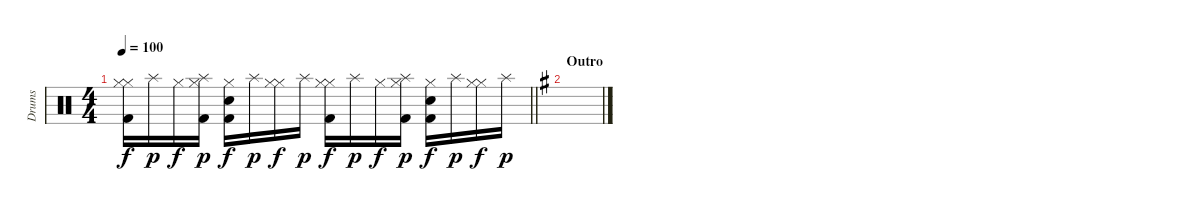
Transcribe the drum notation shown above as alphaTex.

\track ("Drums" "Drums") {instrument percussion}
\staff {score}
\articulation defaults
\ts (4 4)
\tempo 100
\clef neutral
\barLineRight lightlight
\ks c
("Hi-Hat (closed)" "Hi-Hat (closed)" "Kick (hit) 2").16{dy f} "Splash (hit)".16{dy p} "Hi-Hat (closed)".16{dy f} ("Splash (hit)" "Hi-Hat (closed)" "Kick (hit) 2").16{dy p} ("Electric Snare (hit)" "Hi-Hat (closed)" "Kick (hit) 2").16{dy f} "Splash (hit)".16{dy p} ("Hi-Hat (closed)" "Hi-Hat (closed)").16{dy f} "Splash (hit)".16{dy p} ("Hi-Hat (closed)" "Hi-Hat (closed)" "Kick (hit) 2").16{dy f} "Splash (hit)".16{dy p} "Hi-Hat (closed)".16{dy f} ("Splash (hit)" "Hi-Hat (closed)" "Kick (hit) 2").16{dy p} ("Electric Snare (hit)" "Hi-Hat (closed)" "Kick (hit) 2").16{dy f} "Splash (hit)".16{dy p} ("Hi-Hat (closed)" "Hi-Hat (closed)").16{dy f} "Splash (hit)".16{dy p} |
\section ("" "Outro")
\ks g
